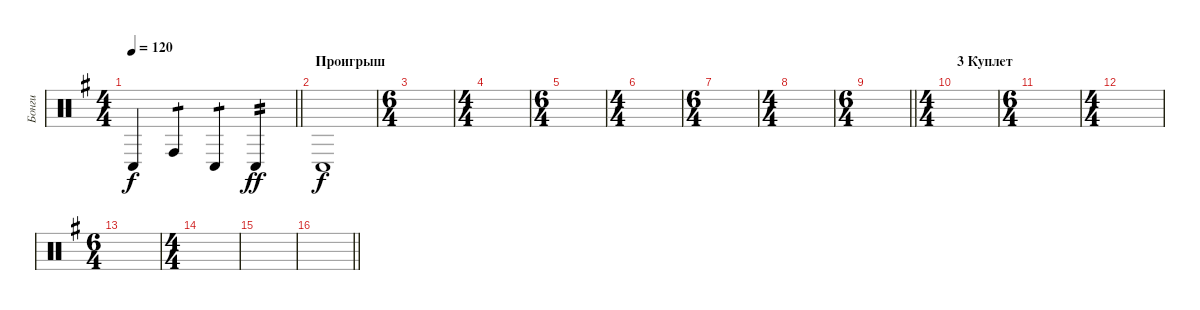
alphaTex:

\track ("Бонги" "Бонги") {instrument percussion}
\staff {score}
\articulation defaults
\ts (4 4)
\tempo 120
\clef neutral
\barLineRight lightlight
\ks eminor "Conga low (hit)".4{dy f} "Conga high (hit)".4{tp 1} "Conga low (hit)".4{tp 1} "Conga low (hit)".4{tp 2 dy ff}
|
\section ("" "Проигрыш")
"Conga low (hit)".1{dy f} |
\ts (6 4)
|
\ts (4 4)
|
\ts (6 4)
|
\ts (4 4)
|
\ts (6 4)
|
\ts (4 4)
|
\ts (6 4)
\barLineRight lightlight
|
\ts (4 4)
\section ("" "3 Куплет")
|
\ts (6 4)
|
\ts (4 4)
|
\ts (6 4)
|
\ts (4 4)
|
|
\barLineRight lightlight
